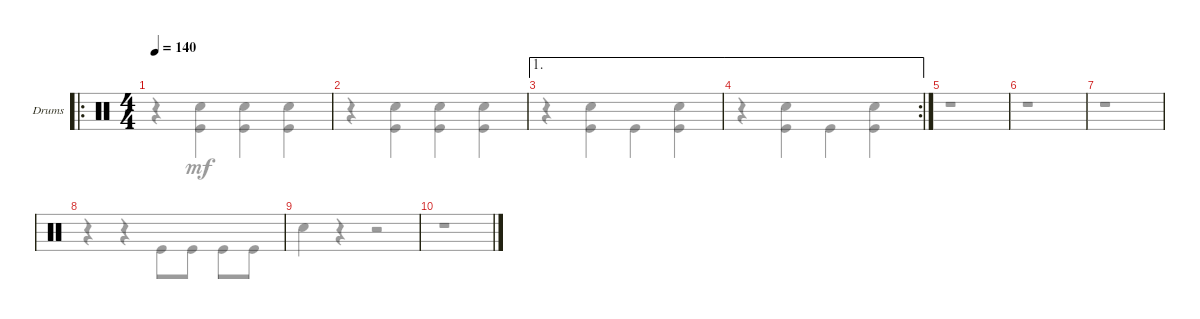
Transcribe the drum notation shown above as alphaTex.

\defaultSystemsLayout 4
\bracketExtendMode groupsimilarinstruments
\firstSystemTrackNameOrientation horizontal
\otherSystemsTrackNameOrientation horizontal
\track ("Drumkit" "Drums") {instrument percussion}
\staff {score}
\articulation defaults
\voice
\ro
\ts (4 4)
\tempo 140
\clef neutral
\scale
0.547619
\ks c
|
\scale
0.452381 |
\ae 1
\scale
0.475 |
\ae 1
\rc 2
\scale
0.525 |
\scale
0.5 |
\scale
0.5 |
\scale
0.5 |
\scale
0.5 |
|
\voice
\clef neutral
\ottava regular
\simile none
\scale
0.547619
\ks c
r.4{dy mf} ("Kick (hit)" "Snare (hit) 2").4 ("Kick (hit)" "Snare (hit) 2").4 ("Kick (hit)" "Snare (hit) 2").4 |
\scale
0.452381 r.4 ("Kick (hit)" "Snare (hit) 2").4 ("Kick (hit)" "Snare (hit) 2").4 ("Kick (hit)" "Snare (hit) 2").4 |
\scale
0.475 r.4 ("Kick (hit)" "Snare (hit) 2").4 "Kick (hit)".4 ("Kick (hit)" "Snare (hit) 2").4 |
\scale
0.525 r.4 ("Kick (hit)" "Snare (hit) 2").4 "Kick (hit)".4 ("Kick (hit)" "Snare (hit) 2").4 |
\scale
0.5 r.1 |
\scale
0.5 r.1 |
\scale
0.5 r.1 |
\scale
0.5 r.4 r.4 "Kick (hit)".8 "Kick (hit)".8 "Kick (hit)".8 "Kick (hit)".8 |
"Snare (hit) 2".4 r.4 r.2 |
r.1
